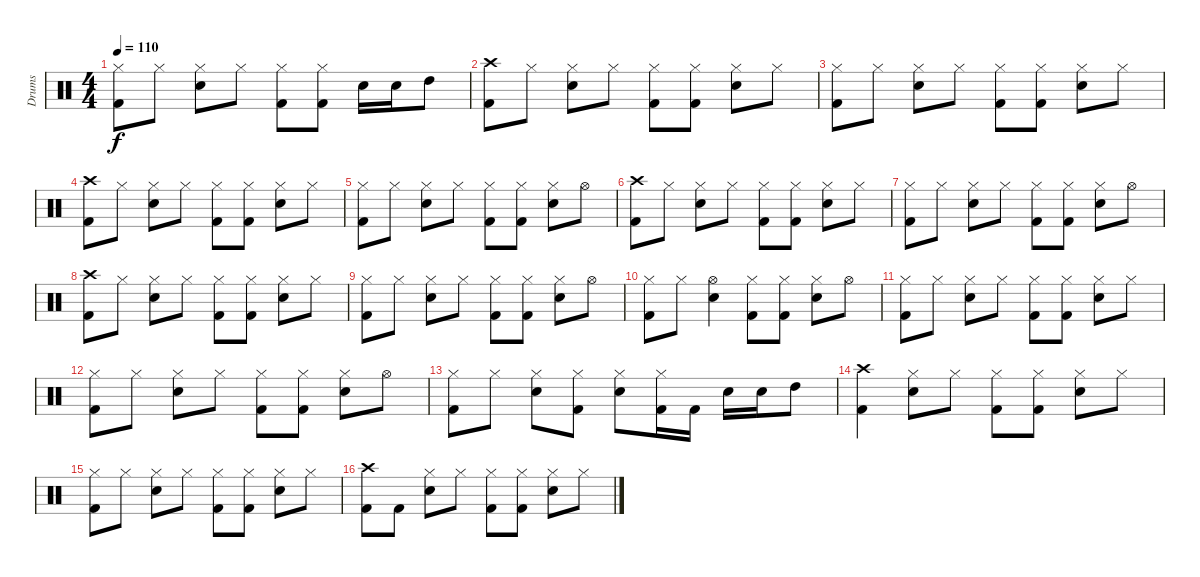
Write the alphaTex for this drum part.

\track ("Drums" "Drums") {instrument percussion}
\staff {score}
\articulation defaults
\ts (4 4)
\tempo 110
\clef neutral
\ks c
("Hi-Hat (closed)" "Kick (hit) 2").8{dy f} "Hi-Hat (closed)".8 ("Hi-Hat (closed)" "Electric Snare (hit)").8 "Hi-Hat (closed)".8 ("Hi-Hat (closed)" "Kick (hit) 2").8 ("Hi-Hat (closed)" "Kick (hit) 2").8 "Electric Snare (hit)".16 "Electric Snare (hit)".16 "High Tom (hit)".8 |
("Crash high (hit)" "Kick (hit) 2").8 "Hi-Hat (closed)".8 ("Hi-Hat (closed)" "Electric Snare (hit)").8 "Hi-Hat (closed)".8 ("Hi-Hat (closed)" "Kick (hit) 2").8 ("Hi-Hat (closed)" "Kick (hit) 2").8 ("Hi-Hat (closed)" "Electric Snare (hit)").8 "Hi-Hat (closed)".8 |
("Hi-Hat (closed)" "Kick (hit) 2").8 "Hi-Hat (closed)".8 ("Hi-Hat (closed)" "Electric Snare (hit)").8 "Hi-Hat (closed)".8 ("Hi-Hat (closed)" "Kick (hit) 2").8 ("Hi-Hat (closed)" "Kick (hit) 2").8 ("Hi-Hat (closed)" "Electric Snare (hit)").8 "Hi-Hat (closed)".8 |
("Crash high (hit)" "Kick (hit) 2").8 "Hi-Hat (closed)".8 ("Hi-Hat (closed)" "Electric Snare (hit)").8 "Hi-Hat (closed)".8 ("Hi-Hat (closed)" "Kick (hit) 2").8 ("Hi-Hat (closed)" "Kick (hit) 2").8 ("Hi-Hat (closed)" "Electric Snare (hit)").8 "Hi-Hat (closed)".8 |
("Hi-Hat (closed)" "Kick (hit) 2").8 "Hi-Hat (closed)".8 ("Hi-Hat (closed)" "Electric Snare (hit)").8 "Hi-Hat (closed)".8 ("Hi-Hat (closed)" "Kick (hit) 2").8 ("Hi-Hat (closed)" "Kick (hit) 2").8 ("Hi-Hat (closed)" "Electric Snare (hit)").8 "Hi-Hat (open)".8 |
("Crash high (hit)" "Kick (hit) 2").8 "Hi-Hat (closed)".8 ("Hi-Hat (closed)" "Electric Snare (hit)").8 "Hi-Hat (closed)".8 ("Hi-Hat (closed)" "Kick (hit) 2").8 ("Hi-Hat (closed)" "Kick (hit) 2").8 ("Hi-Hat (closed)" "Electric Snare (hit)").8 "Hi-Hat (closed)".8 |
("Hi-Hat (closed)" "Kick (hit) 2").8 "Hi-Hat (closed)".8 ("Hi-Hat (closed)" "Electric Snare (hit)").8 "Hi-Hat (closed)".8 ("Hi-Hat (closed)" "Kick (hit) 2").8 ("Hi-Hat (closed)" "Kick (hit) 2").8 ("Hi-Hat (closed)" "Electric Snare (hit)").8 "Hi-Hat (open)".8 |
("Crash high (hit)" "Kick (hit) 2").8 "Hi-Hat (closed)".8 ("Hi-Hat (closed)" "Electric Snare (hit)").8 "Hi-Hat (closed)".8 ("Hi-Hat (closed)" "Kick (hit) 2").8 ("Hi-Hat (closed)" "Kick (hit) 2").8 ("Hi-Hat (closed)" "Electric Snare (hit)").8 "Hi-Hat (closed)".8 |
("Hi-Hat (closed)" "Kick (hit) 2").8 "Hi-Hat (closed)".8 ("Hi-Hat (closed)" "Electric Snare (hit)").8 "Hi-Hat (closed)".8 ("Hi-Hat (closed)" "Kick (hit) 2").8 ("Hi-Hat (closed)" "Kick (hit) 2").8 ("Hi-Hat (closed)" "Electric Snare (hit)").8 "Hi-Hat (open)".8 |
("Hi-Hat (closed)" "Kick (hit) 2").8 "Hi-Hat (closed)".8 ("Hi-Hat (open)" "Electric Snare (hit)").4 ("Hi-Hat (closed)" "Kick (hit) 2").8 ("Hi-Hat (closed)" "Kick (hit) 2").8 ("Hi-Hat (closed)" "Electric Snare (hit)").8 "Hi-Hat (open)".8 |
("Hi-Hat (closed)" "Kick (hit) 2").8 "Hi-Hat (closed)".8 ("Hi-Hat (closed)" "Electric Snare (hit)").8 "Hi-Hat (closed)".8 ("Hi-Hat (closed)" "Kick (hit) 2").8 ("Hi-Hat (closed)" "Kick (hit) 2").8 ("Hi-Hat (closed)" "Electric Snare (hit)").8 "Hi-Hat (closed)".8 |
("Hi-Hat (closed)" "Kick (hit) 2").8 "Hi-Hat (closed)".8 ("Hi-Hat (closed)" "Electric Snare (hit)").8 "Hi-Hat (closed)".8 ("Hi-Hat (closed)" "Kick (hit) 2").8 ("Hi-Hat (closed)" "Kick (hit) 2").8 ("Hi-Hat (closed)" "Electric Snare (hit)").8 "Hi-Hat (open)".8 |
("Hi-Hat (closed)" "Kick (hit) 2").8 "Hi-Hat (closed)".8 ("Hi-Hat (closed)" "Electric Snare (hit)").8 ("Hi-Hat (closed)" "Kick (hit) 2").8 ("Hi-Hat (closed)" "Electric Snare (hit)").8 ("Hi-Hat (closed)" "Kick (hit) 2").16 "Kick (hit) 2".16 "Electric Snare (hit)".16 "Electric Snare (hit)".16 "High Tom (hit)".8 |
("Crash high (hit)" "Kick (hit) 2").4 ("Hi-Hat (closed)" "Electric Snare (hit)").8 "Hi-Hat (closed)".8 ("Hi-Hat (closed)" "Kick (hit) 2").8 ("Hi-Hat (closed)" "Kick (hit) 2").8 ("Hi-Hat (closed)" "Electric Snare (hit)").8 "Hi-Hat (closed)".8 |
("Hi-Hat (closed)" "Kick (hit) 2").8 "Hi-Hat (closed)".8 ("Hi-Hat (closed)" "Electric Snare (hit)").8 "Hi-Hat (closed)".8 ("Hi-Hat (closed)" "Kick (hit) 2").8 ("Hi-Hat (closed)" "Kick (hit) 2").8 ("Hi-Hat (closed)" "Electric Snare (hit)").8 "Hi-Hat (closed)".8 |
("Crash high (hit)" "Kick (hit) 2").8 "Kick (hit) 2".8 ("Hi-Hat (closed)" "Electric Snare (hit)").8 "Hi-Hat (closed)".8 ("Hi-Hat (closed)" "Kick (hit) 2").8 ("Hi-Hat (closed)" "Kick (hit) 2").8 ("Hi-Hat (closed)" "Electric Snare (hit)").8 "Hi-Hat (closed)".8
